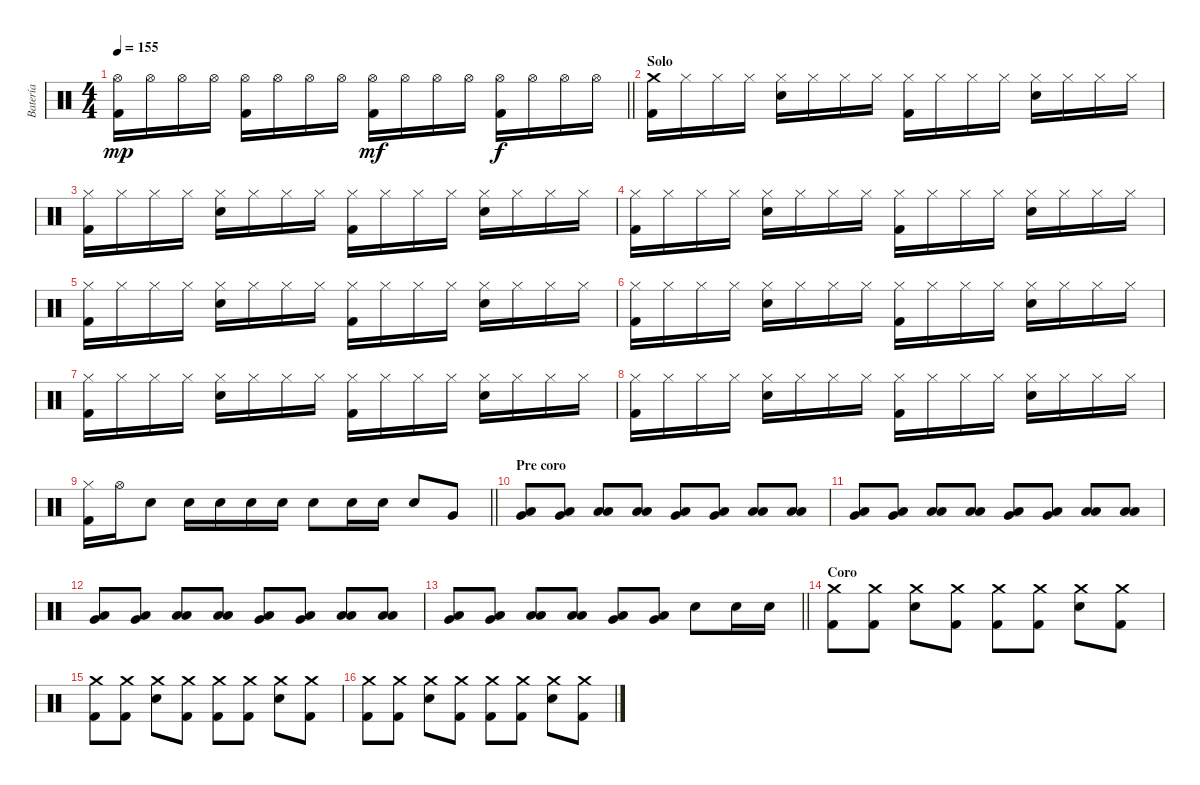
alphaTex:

\track ("Batería" "Batería") {instrument percussion}
\staff {score}
\articulation defaults
\ts (4 4)
\tempo 155
\clef neutral
\barLineRight lightlight
\ks c
("Hi-Hat (open)" "Kick (hit) 2").16{dy mp} "Hi-Hat (open)".16 "Hi-Hat (open)".16 "Hi-Hat (open)".16 ("Hi-Hat (open)" "Kick (hit) 2").16 "Hi-Hat (open)".16 "Hi-Hat (open)".16 "Hi-Hat (open)".16 ("Hi-Hat (open)" "Kick (hit) 2").16{dy mf} "Hi-Hat (open)".16 "Hi-Hat (open)".16 "Hi-Hat (open)".16 ("Hi-Hat (open)" "Kick (hit) 2").16{dy f} "Hi-Hat (open)".16 "Hi-Hat (open)".16 "Hi-Hat (open)".16 |
\section ("" "Solo")
("Crash medium (hit)" "Kick (hit) 2").16 "Hi-Hat (closed)".16 "Hi-Hat (closed)".16 "Hi-Hat (closed)".16 ("Hi-Hat (closed)" "Snare (hit) 2").16 "Hi-Hat (closed)".16 "Hi-Hat (closed)".16 "Hi-Hat (closed)".16 ("Hi-Hat (closed)" "Kick (hit) 2").16 "Hi-Hat (closed)".16 "Hi-Hat (closed)".16 "Hi-Hat (closed)".16 ("Hi-Hat (closed)" "Snare (hit) 2").16 "Hi-Hat (closed)".16 "Hi-Hat (closed)".16 "Hi-Hat (closed)".16 |
("Hi-Hat (closed)" "Kick (hit) 2").16 "Hi-Hat (closed)".16 "Hi-Hat (closed)".16 "Hi-Hat (closed)".16 ("Hi-Hat (closed)" "Snare (hit) 2").16 "Hi-Hat (closed)".16 "Hi-Hat (closed)".16 "Hi-Hat (closed)".16 ("Hi-Hat (closed)" "Kick (hit) 2").16 "Hi-Hat (closed)".16 "Hi-Hat (closed)".16 "Hi-Hat (closed)".16 ("Hi-Hat (closed)" "Snare (hit) 2").16 "Hi-Hat (closed)".16 "Hi-Hat (closed)".16 "Hi-Hat (closed)".16 |
("Hi-Hat (closed)" "Kick (hit) 2").16 "Hi-Hat (closed)".16 "Hi-Hat (closed)".16 "Hi-Hat (closed)".16 ("Hi-Hat (closed)" "Snare (hit) 2").16 "Hi-Hat (closed)".16 "Hi-Hat (closed)".16 "Hi-Hat (closed)".16 ("Hi-Hat (closed)" "Kick (hit) 2").16 "Hi-Hat (closed)".16 "Hi-Hat (closed)".16 "Hi-Hat (closed)".16 ("Hi-Hat (closed)" "Snare (hit) 2").16 "Hi-Hat (closed)".16 "Hi-Hat (closed)".16 "Hi-Hat (closed)".16 |
("Hi-Hat (closed)" "Kick (hit) 2").16 "Hi-Hat (closed)".16 "Hi-Hat (closed)".16 "Hi-Hat (closed)".16 ("Hi-Hat (closed)" "Snare (hit) 2").16 "Hi-Hat (closed)".16 "Hi-Hat (closed)".16 "Hi-Hat (closed)".16 ("Hi-Hat (closed)" "Kick (hit) 2").16 "Hi-Hat (closed)".16 "Hi-Hat (closed)".16 "Hi-Hat (closed)".16 ("Hi-Hat (closed)" "Snare (hit) 2").16 "Hi-Hat (closed)".16 "Hi-Hat (closed)".16 "Hi-Hat (closed)".16 |
("Hi-Hat (closed)" "Kick (hit) 2").16 "Hi-Hat (closed)".16 "Hi-Hat (closed)".16 "Hi-Hat (closed)".16 ("Hi-Hat (closed)" "Snare (hit) 2").16 "Hi-Hat (closed)".16 "Hi-Hat (closed)".16 "Hi-Hat (closed)".16 ("Hi-Hat (closed)" "Kick (hit) 2").16 "Hi-Hat (closed)".16 "Hi-Hat (closed)".16 "Hi-Hat (closed)".16 ("Hi-Hat (closed)" "Snare (hit) 2").16 "Hi-Hat (closed)".16 "Hi-Hat (closed)".16 "Hi-Hat (closed)".16 |
("Hi-Hat (closed)" "Kick (hit) 2").16 "Hi-Hat (closed)".16 "Hi-Hat (closed)".16 "Hi-Hat (closed)".16 ("Hi-Hat (closed)" "Snare (hit) 2").16 "Hi-Hat (closed)".16 "Hi-Hat (closed)".16 "Hi-Hat (closed)".16 ("Hi-Hat (closed)" "Kick (hit) 2").16 "Hi-Hat (closed)".16 "Hi-Hat (closed)".16 "Hi-Hat (closed)".16 ("Hi-Hat (closed)" "Snare (hit) 2").16 "Hi-Hat (closed)".16 "Hi-Hat (closed)".16 "Hi-Hat (closed)".16 |
("Hi-Hat (closed)" "Kick (hit) 2").16 "Hi-Hat (closed)".16 "Hi-Hat (closed)".16 "Hi-Hat (closed)".16 ("Hi-Hat (closed)" "Snare (hit) 2").16 "Hi-Hat (closed)".16 "Hi-Hat (closed)".16 "Hi-Hat (closed)".16 ("Hi-Hat (closed)" "Kick (hit) 2").16 "Hi-Hat (closed)".16 "Hi-Hat (closed)".16 "Hi-Hat (closed)".16 ("Hi-Hat (closed)" "Snare (hit) 2").16 "Hi-Hat (closed)".16 "Hi-Hat (closed)".16 "Hi-Hat (closed)".16 |
\barLineRight lightlight
("Hi-Hat (closed)" "Kick (hit) 2").16 "Hi-Hat (open)".16 "Snare (hit) 2".8 "Snare (hit) 2".16 "Snare (hit) 2".16 "Snare (hit) 2".16 "Snare (hit) 2".16 "Snare (hit) 2".8 "Snare (hit) 2".16 "Snare (hit) 2".16 "Snare (hit) 2".8 "Very Low Tom (hit)".8 |
\section ("" "Pre coro")
("Very Low Tom (hit)" "Low Floor Tom (hit)").8 ("Very Low Tom (hit)" "Low Floor Tom (hit)").8 ("Low Tom (hit)" "Low Floor Tom (hit)").8 ("Low Tom (hit)" "Low Floor Tom (hit)").8 ("Very Low Tom (hit)" "Low Floor Tom (hit)").8 ("Very Low Tom (hit)" "Low Floor Tom (hit)").8 ("Low Tom (hit)" "Low Floor Tom (hit)").8 ("Low Tom (hit)" "Low Floor Tom (hit)").8 |
("Very Low Tom (hit)" "Low Floor Tom (hit)").8 ("Very Low Tom (hit)" "Low Floor Tom (hit)").8 ("Low Tom (hit)" "Low Floor Tom (hit)").8 ("Low Tom (hit)" "Low Floor Tom (hit)").8 ("Very Low Tom (hit)" "Low Floor Tom (hit)").8 ("Very Low Tom (hit)" "Low Floor Tom (hit)").8 ("Low Tom (hit)" "Low Floor Tom (hit)").8 ("Low Tom (hit)" "Low Floor Tom (hit)").8 |
("Very Low Tom (hit)" "Low Floor Tom (hit)").8 ("Very Low Tom (hit)" "Low Floor Tom (hit)").8 ("Low Tom (hit)" "Low Floor Tom (hit)").8 ("Low Tom (hit)" "Low Floor Tom (hit)").8 ("Very Low Tom (hit)" "Low Floor Tom (hit)").8 ("Very Low Tom (hit)" "Low Floor Tom (hit)").8 ("Low Tom (hit)" "Low Floor Tom (hit)").8 ("Low Tom (hit)" "Low Floor Tom (hit)").8 |
\barLineRight lightlight
("Very Low Tom (hit)" "Low Floor Tom (hit)").8 ("Very Low Tom (hit)" "Low Floor Tom (hit)").8 ("Low Tom (hit)" "Low Floor Tom (hit)").8 ("Low Tom (hit)" "Low Floor Tom (hit)").8 ("Very Low Tom (hit)" "Low Floor Tom (hit)").8 ("Very Low Tom (hit)" "Low Floor Tom (hit)").8 "Snare (hit) 2".8 "Snare (hit) 2".16 "Snare (hit) 2".16 |
\section ("" "Coro")
("Crash medium (hit)" "Kick (hit) 2").8 ("Crash medium (hit)" "Kick (hit) 2").8 ("Crash medium (hit)" "Snare (hit) 2").8 ("Crash medium (hit)" "Kick (hit) 2").8 ("Crash medium (hit)" "Kick (hit) 2").8 ("Crash medium (hit)" "Kick (hit) 2").8 ("Crash medium (hit)" "Snare (hit) 2").8 ("Crash medium (hit)" "Kick (hit) 2").8 |
("Crash medium (hit)" "Kick (hit) 2").8 ("Crash medium (hit)" "Kick (hit) 2").8 ("Crash medium (hit)" "Snare (hit) 2").8 ("Crash medium (hit)" "Kick (hit) 2").8 ("Crash medium (hit)" "Kick (hit) 2").8 ("Crash medium (hit)" "Kick (hit) 2").8 ("Crash medium (hit)" "Snare (hit) 2").8 ("Crash medium (hit)" "Kick (hit) 2").8 |
("Crash medium (hit)" "Kick (hit) 2").8 ("Crash medium (hit)" "Kick (hit) 2").8 ("Crash medium (hit)" "Snare (hit) 2").8 ("Crash medium (hit)" "Kick (hit) 2").8 ("Crash medium (hit)" "Kick (hit) 2").8 ("Crash medium (hit)" "Kick (hit) 2").8 ("Crash medium (hit)" "Snare (hit) 2").8 ("Crash medium (hit)" "Kick (hit) 2").8
